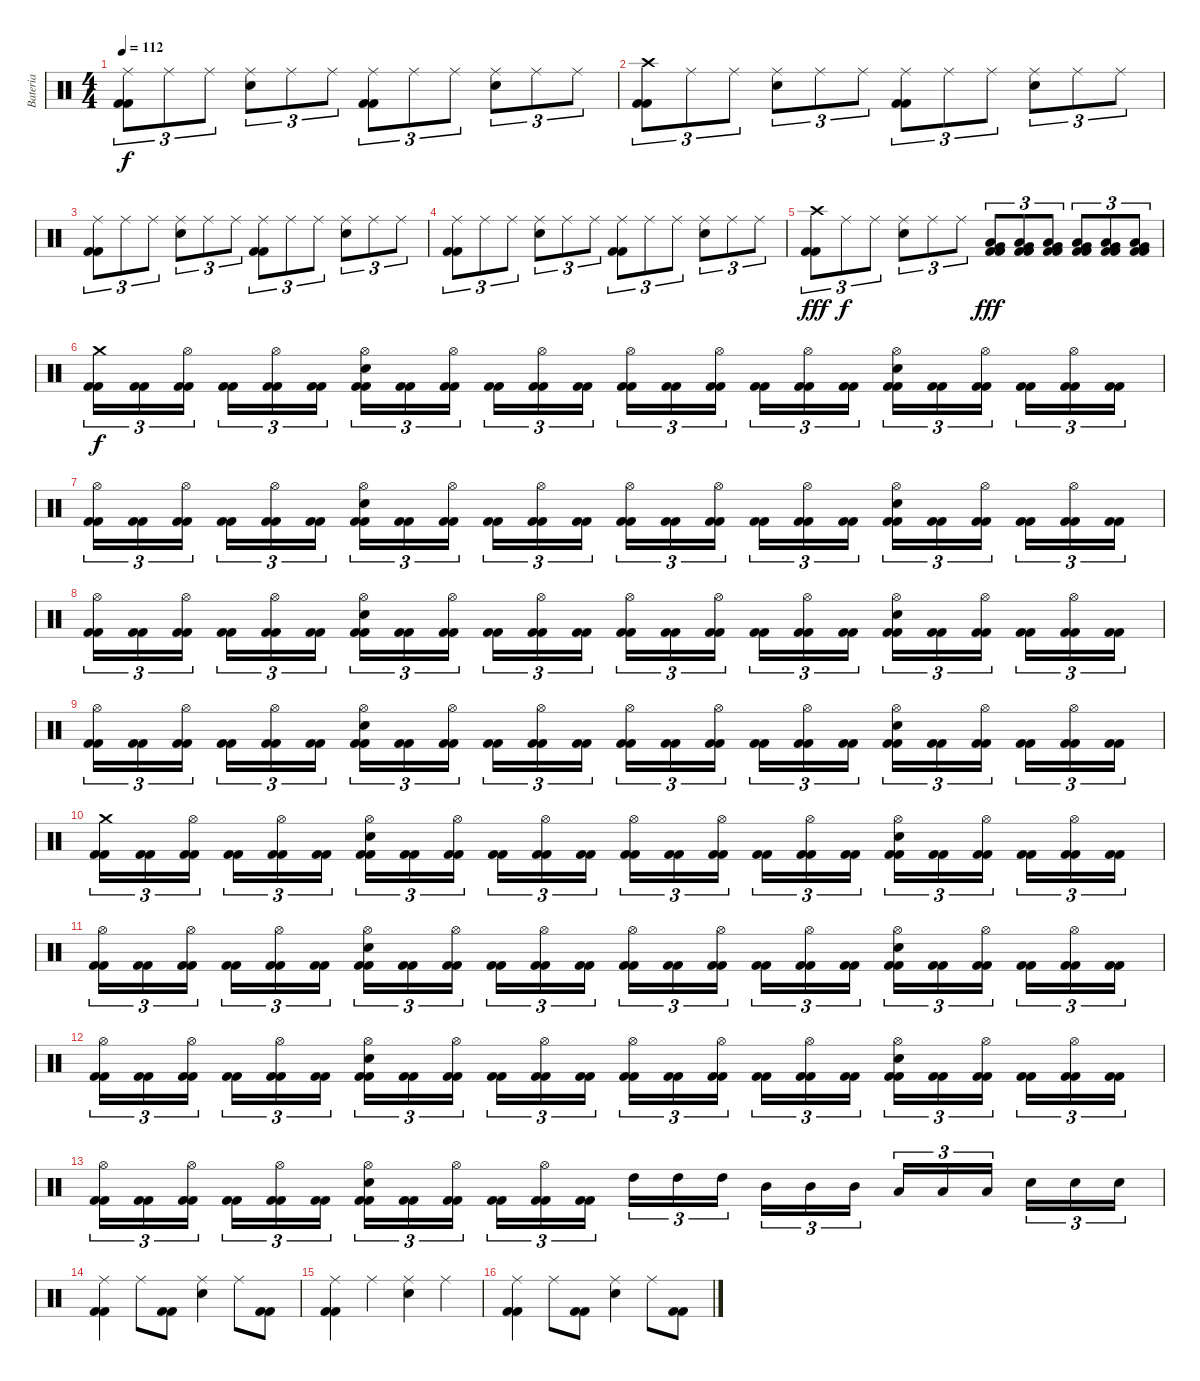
\track ("Bateria" "Bateria") {instrument percussion}
\staff {score}
\articulation defaults
\ts (4 4)
\tempo 112
\clef neutral
\ks c
("Kick (hit) 2" "Kick (hit) 2" "Ride (middle)").8{tu (3 2) dy f} "Ride (middle)".8{tu (3 2)} "Ride (middle)".8{tu (3 2)} ("Snare (hit) 2" "Ride (middle)").8{tu (3 2)} "Ride (middle)".8{tu (3 2)} "Ride (middle)".8{tu (3 2)} ("Kick (hit) 2" "Kick (hit) 2" "Ride (middle)").8{tu (3 2)} "Ride (middle)".8{tu (3 2)} "Ride (middle)".8{tu (3 2)} ("Snare (hit) 2" "Ride (middle)").8{tu (3 2)} "Ride (middle)".8{tu (3 2)} "Ride (middle)".8{tu (3 2)} |
("Kick (hit) 2" "Kick (hit) 2" "Crash high (hit)").8{tu (3 2)} "Ride (middle)".8{tu (3 2)} "Ride (middle)".8{tu (3 2)} ("Snare (hit) 2" "Ride (middle)").8{tu (3 2)} "Ride (middle)".8{tu (3 2)} "Ride (middle)".8{tu (3 2)} ("Kick (hit) 2" "Kick (hit) 2" "Ride (middle)").8{tu (3 2)} "Ride (middle)".8{tu (3 2)} "Ride (middle)".8{tu (3 2)} ("Snare (hit) 2" "Ride (middle)").8{tu (3 2)} "Ride (middle)".8{tu (3 2)} "Ride (middle)".8{tu (3 2)} |
("Kick (hit) 2" "Kick (hit) 2" "Ride (middle)").8{tu (3 2)} "Ride (middle)".8{tu (3 2)} "Ride (middle)".8{tu (3 2)} ("Snare (hit) 2" "Ride (middle)").8{tu (3 2)} "Ride (middle)".8{tu (3 2)} "Ride (middle)".8{tu (3 2)} ("Kick (hit) 2" "Kick (hit) 2" "Ride (middle)").8{tu (3 2)} "Ride (middle)".8{tu (3 2)} "Ride (middle)".8{tu (3 2)} ("Snare (hit) 2" "Ride (middle)").8{tu (3 2)} "Ride (middle)".8{tu (3 2)} "Ride (middle)".8{tu (3 2)} |
("Kick (hit) 2" "Kick (hit) 2" "Ride (middle)").8{tu (3 2)} "Ride (middle)".8{tu (3 2)} "Ride (middle)".8{tu (3 2)} ("Snare (hit) 2" "Ride (middle)").8{tu (3 2)} "Ride (middle)".8{tu (3 2)} "Ride (middle)".8{tu (3 2)} ("Kick (hit) 2" "Kick (hit) 2" "Ride (middle)").8{tu (3 2)} "Ride (middle)".8{tu (3 2)} "Ride (middle)".8{tu (3 2)} ("Snare (hit) 2" "Ride (middle)").8{tu (3 2)} "Ride (middle)".8{tu (3 2)} "Ride (middle)".8{tu (3 2)} |
("Kick (hit) 2" "Kick (hit) 2" "Crash high (hit)").8{tu (3 2) dy fff} "Ride (middle)".8{tu (3 2) dy f} "Ride (middle)".8{tu (3 2)} ("Snare (hit) 2" "Ride (middle)").8{tu (3 2)} "Ride (middle)".8{tu (3 2)} "Ride (middle)".8{tu (3 2)} ("Kick (hit) 2" "Kick (hit) 2" "Very Low Tom (hit)" "Low Tom (hit)").8{tu (3 2) dy fff} ("Kick (hit) 2" "Kick (hit) 2" "Very Low Tom (hit)" "Low Tom (hit)").8{tu (3 2)} ("Kick (hit) 2" "Kick (hit) 2" "Very Low Tom (hit)" "Low Tom (hit)").8{tu (3 2)} ("Kick (hit) 2" "Kick (hit) 2" "Very Low Tom (hit)" "Low Tom (hit)").8{tu (3 2)} ("Kick (hit) 2" "Kick (hit) 2" "Very Low Tom (hit)" "Low Tom (hit)").8{tu (3 2)} ("Kick (hit) 2" "Kick (hit) 2" "Very Low Tom (hit)" "Low Tom (hit)").8{tu (3 2)} |
("Kick (hit) 2" "Kick (hit) 2" "Crash medium (hit)").16{tu (3 2) dy f} ("Kick (hit) 2" "Kick (hit) 2").16{tu (3 2)} ("Kick (hit) 2" "Kick (hit) 2" "Hi-Hat (open)").16{tu (3 2)} ("Kick (hit) 2" "Kick (hit) 2").16{tu (3 2)} ("Kick (hit) 2" "Kick (hit) 2" "Hi-Hat (open)").16{tu (3 2)} ("Kick (hit) 2" "Kick (hit) 2").16{tu (3 2)} ("Kick (hit) 2" "Kick (hit) 2" "Snare (hit) 2" "Hi-Hat (open)").16{tu (3 2)} ("Kick (hit) 2" "Kick (hit) 2").16{tu (3 2)} ("Kick (hit) 2" "Kick (hit) 2" "Hi-Hat (open)").16{tu (3 2)} ("Kick (hit) 2" "Kick (hit) 2").16{tu (3 2)} ("Kick (hit) 2" "Kick (hit) 2" "Hi-Hat (open)").16{tu (3 2)} ("Kick (hit) 2" "Kick (hit) 2").16{tu (3 2)} ("Kick (hit) 2" "Kick (hit) 2" "Hi-Hat (open)").16{tu (3 2)} ("Kick (hit) 2" "Kick (hit) 2").16{tu (3 2)} ("Kick (hit) 2" "Kick (hit) 2" "Hi-Hat (open)").16{tu (3 2)} ("Kick (hit) 2" "Kick (hit) 2").16{tu (3 2)} ("Kick (hit) 2" "Kick (hit) 2" "Hi-Hat (open)").16{tu (3 2)} ("Kick (hit) 2" "Kick (hit) 2").16{tu (3 2)} ("Kick (hit) 2" "Kick (hit) 2" "Snare (hit) 2" "Hi-Hat (open)").16{tu (3 2)} ("Kick (hit) 2" "Kick (hit) 2").16{tu (3 2)} ("Kick (hit) 2" "Kick (hit) 2" "Hi-Hat (open)").16{tu (3 2)} ("Kick (hit) 2" "Kick (hit) 2").16{tu (3 2)} ("Kick (hit) 2" "Kick (hit) 2" "Hi-Hat (open)").16{tu (3 2)} ("Kick (hit) 2" "Kick (hit) 2").16{tu (3 2)} |
("Kick (hit) 2" "Kick (hit) 2" "Hi-Hat (open)").16{tu (3 2)} ("Kick (hit) 2" "Kick (hit) 2").16{tu (3 2)} ("Kick (hit) 2" "Kick (hit) 2" "Hi-Hat (open)").16{tu (3 2)} ("Kick (hit) 2" "Kick (hit) 2").16{tu (3 2)} ("Kick (hit) 2" "Kick (hit) 2" "Hi-Hat (open)").16{tu (3 2)} ("Kick (hit) 2" "Kick (hit) 2").16{tu (3 2)} ("Kick (hit) 2" "Kick (hit) 2" "Snare (hit) 2" "Hi-Hat (open)").16{tu (3 2)} ("Kick (hit) 2" "Kick (hit) 2").16{tu (3 2)} ("Kick (hit) 2" "Kick (hit) 2" "Hi-Hat (open)").16{tu (3 2)} ("Kick (hit) 2" "Kick (hit) 2").16{tu (3 2)} ("Kick (hit) 2" "Kick (hit) 2" "Hi-Hat (open)").16{tu (3 2)} ("Kick (hit) 2" "Kick (hit) 2").16{tu (3 2)} ("Kick (hit) 2" "Kick (hit) 2" "Hi-Hat (open)").16{tu (3 2)} ("Kick (hit) 2" "Kick (hit) 2").16{tu (3 2)} ("Kick (hit) 2" "Kick (hit) 2" "Hi-Hat (open)").16{tu (3 2)} ("Kick (hit) 2" "Kick (hit) 2").16{tu (3 2)} ("Kick (hit) 2" "Kick (hit) 2" "Hi-Hat (open)").16{tu (3 2)} ("Kick (hit) 2" "Kick (hit) 2").16{tu (3 2)} ("Kick (hit) 2" "Kick (hit) 2" "Snare (hit) 2" "Hi-Hat (open)").16{tu (3 2)} ("Kick (hit) 2" "Kick (hit) 2").16{tu (3 2)} ("Kick (hit) 2" "Kick (hit) 2" "Hi-Hat (open)").16{tu (3 2)} ("Kick (hit) 2" "Kick (hit) 2").16{tu (3 2)} ("Kick (hit) 2" "Kick (hit) 2" "Hi-Hat (open)").16{tu (3 2)} ("Kick (hit) 2" "Kick (hit) 2").16{tu (3 2)} |
("Kick (hit) 2" "Kick (hit) 2" "Hi-Hat (open)").16{tu (3 2)} ("Kick (hit) 2" "Kick (hit) 2").16{tu (3 2)} ("Kick (hit) 2" "Kick (hit) 2" "Hi-Hat (open)").16{tu (3 2)} ("Kick (hit) 2" "Kick (hit) 2").16{tu (3 2)} ("Kick (hit) 2" "Kick (hit) 2" "Hi-Hat (open)").16{tu (3 2)} ("Kick (hit) 2" "Kick (hit) 2").16{tu (3 2)} ("Kick (hit) 2" "Kick (hit) 2" "Snare (hit) 2" "Hi-Hat (open)").16{tu (3 2)} ("Kick (hit) 2" "Kick (hit) 2").16{tu (3 2)} ("Kick (hit) 2" "Kick (hit) 2" "Hi-Hat (open)").16{tu (3 2)} ("Kick (hit) 2" "Kick (hit) 2").16{tu (3 2)} ("Kick (hit) 2" "Kick (hit) 2" "Hi-Hat (open)").16{tu (3 2)} ("Kick (hit) 2" "Kick (hit) 2").16{tu (3 2)} ("Kick (hit) 2" "Kick (hit) 2" "Hi-Hat (open)").16{tu (3 2)} ("Kick (hit) 2" "Kick (hit) 2").16{tu (3 2)} ("Kick (hit) 2" "Kick (hit) 2" "Hi-Hat (open)").16{tu (3 2)} ("Kick (hit) 2" "Kick (hit) 2").16{tu (3 2)} ("Kick (hit) 2" "Kick (hit) 2" "Hi-Hat (open)").16{tu (3 2)} ("Kick (hit) 2" "Kick (hit) 2").16{tu (3 2)} ("Kick (hit) 2" "Kick (hit) 2" "Snare (hit) 2" "Hi-Hat (open)").16{tu (3 2)} ("Kick (hit) 2" "Kick (hit) 2").16{tu (3 2)} ("Kick (hit) 2" "Kick (hit) 2" "Hi-Hat (open)").16{tu (3 2)} ("Kick (hit) 2" "Kick (hit) 2").16{tu (3 2)} ("Kick (hit) 2" "Kick (hit) 2" "Hi-Hat (open)").16{tu (3 2)} ("Kick (hit) 2" "Kick (hit) 2").16{tu (3 2)} |
("Kick (hit) 2" "Kick (hit) 2" "Hi-Hat (open)").16{tu (3 2)} ("Kick (hit) 2" "Kick (hit) 2").16{tu (3 2)} ("Kick (hit) 2" "Kick (hit) 2" "Hi-Hat (open)").16{tu (3 2)} ("Kick (hit) 2" "Kick (hit) 2").16{tu (3 2)} ("Kick (hit) 2" "Kick (hit) 2" "Hi-Hat (open)").16{tu (3 2)} ("Kick (hit) 2" "Kick (hit) 2").16{tu (3 2)} ("Kick (hit) 2" "Kick (hit) 2" "Snare (hit) 2" "Hi-Hat (open)").16{tu (3 2)} ("Kick (hit) 2" "Kick (hit) 2").16{tu (3 2)} ("Kick (hit) 2" "Kick (hit) 2" "Hi-Hat (open)").16{tu (3 2)} ("Kick (hit) 2" "Kick (hit) 2").16{tu (3 2)} ("Kick (hit) 2" "Kick (hit) 2" "Hi-Hat (open)").16{tu (3 2)} ("Kick (hit) 2" "Kick (hit) 2").16{tu (3 2)} ("Kick (hit) 2" "Kick (hit) 2" "Hi-Hat (open)").16{tu (3 2)} ("Kick (hit) 2" "Kick (hit) 2").16{tu (3 2)} ("Kick (hit) 2" "Kick (hit) 2" "Hi-Hat (open)").16{tu (3 2)} ("Kick (hit) 2" "Kick (hit) 2").16{tu (3 2)} ("Kick (hit) 2" "Kick (hit) 2" "Hi-Hat (open)").16{tu (3 2)} ("Kick (hit) 2" "Kick (hit) 2").16{tu (3 2)} ("Kick (hit) 2" "Kick (hit) 2" "Snare (hit) 2" "Hi-Hat (open)").16{tu (3 2)} ("Kick (hit) 2" "Kick (hit) 2").16{tu (3 2)} ("Kick (hit) 2" "Kick (hit) 2" "Hi-Hat (open)").16{tu (3 2)} ("Kick (hit) 2" "Kick (hit) 2").16{tu (3 2)} ("Kick (hit) 2" "Kick (hit) 2" "Hi-Hat (open)").16{tu (3 2)} ("Kick (hit) 2" "Kick (hit) 2").16{tu (3 2)} |
("Kick (hit) 2" "Kick (hit) 2" "Crash medium (hit)").16{tu (3 2)} ("Kick (hit) 2" "Kick (hit) 2").16{tu (3 2)} ("Kick (hit) 2" "Kick (hit) 2" "Hi-Hat (open)").16{tu (3 2)} ("Kick (hit) 2" "Kick (hit) 2").16{tu (3 2)} ("Kick (hit) 2" "Kick (hit) 2" "Hi-Hat (open)").16{tu (3 2)} ("Kick (hit) 2" "Kick (hit) 2").16{tu (3 2)} ("Kick (hit) 2" "Kick (hit) 2" "Snare (hit) 2" "Hi-Hat (open)").16{tu (3 2)} ("Kick (hit) 2" "Kick (hit) 2").16{tu (3 2)} ("Kick (hit) 2" "Kick (hit) 2" "Hi-Hat (open)").16{tu (3 2)} ("Kick (hit) 2" "Kick (hit) 2").16{tu (3 2)} ("Kick (hit) 2" "Kick (hit) 2" "Hi-Hat (open)").16{tu (3 2)} ("Kick (hit) 2" "Kick (hit) 2").16{tu (3 2)} ("Kick (hit) 2" "Kick (hit) 2" "Hi-Hat (open)").16{tu (3 2)} ("Kick (hit) 2" "Kick (hit) 2").16{tu (3 2)} ("Kick (hit) 2" "Kick (hit) 2" "Hi-Hat (open)").16{tu (3 2)} ("Kick (hit) 2" "Kick (hit) 2").16{tu (3 2)} ("Kick (hit) 2" "Kick (hit) 2" "Hi-Hat (open)").16{tu (3 2)} ("Kick (hit) 2" "Kick (hit) 2").16{tu (3 2)} ("Kick (hit) 2" "Kick (hit) 2" "Snare (hit) 2" "Hi-Hat (open)").16{tu (3 2)} ("Kick (hit) 2" "Kick (hit) 2").16{tu (3 2)} ("Kick (hit) 2" "Kick (hit) 2" "Hi-Hat (open)").16{tu (3 2)} ("Kick (hit) 2" "Kick (hit) 2").16{tu (3 2)} ("Kick (hit) 2" "Kick (hit) 2" "Hi-Hat (open)").16{tu (3 2)} ("Kick (hit) 2" "Kick (hit) 2").16{tu (3 2)} |
("Kick (hit) 2" "Kick (hit) 2" "Hi-Hat (open)").16{tu (3 2)} ("Kick (hit) 2" "Kick (hit) 2").16{tu (3 2)} ("Kick (hit) 2" "Kick (hit) 2" "Hi-Hat (open)").16{tu (3 2)} ("Kick (hit) 2" "Kick (hit) 2").16{tu (3 2)} ("Kick (hit) 2" "Kick (hit) 2" "Hi-Hat (open)").16{tu (3 2)} ("Kick (hit) 2" "Kick (hit) 2").16{tu (3 2)} ("Kick (hit) 2" "Kick (hit) 2" "Snare (hit) 2" "Hi-Hat (open)").16{tu (3 2)} ("Kick (hit) 2" "Kick (hit) 2").16{tu (3 2)} ("Kick (hit) 2" "Kick (hit) 2" "Hi-Hat (open)").16{tu (3 2)} ("Kick (hit) 2" "Kick (hit) 2").16{tu (3 2)} ("Kick (hit) 2" "Kick (hit) 2" "Hi-Hat (open)").16{tu (3 2)} ("Kick (hit) 2" "Kick (hit) 2").16{tu (3 2)} ("Kick (hit) 2" "Kick (hit) 2" "Hi-Hat (open)").16{tu (3 2)} ("Kick (hit) 2" "Kick (hit) 2").16{tu (3 2)} ("Kick (hit) 2" "Kick (hit) 2" "Hi-Hat (open)").16{tu (3 2)} ("Kick (hit) 2" "Kick (hit) 2").16{tu (3 2)} ("Kick (hit) 2" "Kick (hit) 2" "Hi-Hat (open)").16{tu (3 2)} ("Kick (hit) 2" "Kick (hit) 2").16{tu (3 2)} ("Kick (hit) 2" "Kick (hit) 2" "Snare (hit) 2" "Hi-Hat (open)").16{tu (3 2)} ("Kick (hit) 2" "Kick (hit) 2").16{tu (3 2)} ("Kick (hit) 2" "Kick (hit) 2" "Hi-Hat (open)").16{tu (3 2)} ("Kick (hit) 2" "Kick (hit) 2").16{tu (3 2)} ("Kick (hit) 2" "Kick (hit) 2" "Hi-Hat (open)").16{tu (3 2)} ("Kick (hit) 2" "Kick (hit) 2").16{tu (3 2)} |
("Kick (hit) 2" "Kick (hit) 2" "Hi-Hat (open)").16{tu (3 2)} ("Kick (hit) 2" "Kick (hit) 2").16{tu (3 2)} ("Kick (hit) 2" "Kick (hit) 2" "Hi-Hat (open)").16{tu (3 2)} ("Kick (hit) 2" "Kick (hit) 2").16{tu (3 2)} ("Kick (hit) 2" "Kick (hit) 2" "Hi-Hat (open)").16{tu (3 2)} ("Kick (hit) 2" "Kick (hit) 2").16{tu (3 2)} ("Kick (hit) 2" "Kick (hit) 2" "Snare (hit) 2" "Hi-Hat (open)").16{tu (3 2)} ("Kick (hit) 2" "Kick (hit) 2").16{tu (3 2)} ("Kick (hit) 2" "Kick (hit) 2" "Hi-Hat (open)").16{tu (3 2)} ("Kick (hit) 2" "Kick (hit) 2").16{tu (3 2)} ("Kick (hit) 2" "Kick (hit) 2" "Hi-Hat (open)").16{tu (3 2)} ("Kick (hit) 2" "Kick (hit) 2").16{tu (3 2)} ("Kick (hit) 2" "Kick (hit) 2" "Hi-Hat (open)").16{tu (3 2)} ("Kick (hit) 2" "Kick (hit) 2").16{tu (3 2)} ("Kick (hit) 2" "Kick (hit) 2" "Hi-Hat (open)").16{tu (3 2)} ("Kick (hit) 2" "Kick (hit) 2").16{tu (3 2)} ("Kick (hit) 2" "Kick (hit) 2" "Hi-Hat (open)").16{tu (3 2)} ("Kick (hit) 2" "Kick (hit) 2").16{tu (3 2)} ("Kick (hit) 2" "Kick (hit) 2" "Snare (hit) 2" "Hi-Hat (open)").16{tu (3 2)} ("Kick (hit) 2" "Kick (hit) 2").16{tu (3 2)} ("Kick (hit) 2" "Kick (hit) 2" "Hi-Hat (open)").16{tu (3 2)} ("Kick (hit) 2" "Kick (hit) 2").16{tu (3 2)} ("Kick (hit) 2" "Kick (hit) 2" "Hi-Hat (open)").16{tu (3 2)} ("Kick (hit) 2" "Kick (hit) 2").16{tu (3 2)} |
("Kick (hit) 2" "Kick (hit) 2" "Hi-Hat (open)").16{tu (3 2)} ("Kick (hit) 2" "Kick (hit) 2").16{tu (3 2)} ("Kick (hit) 2" "Kick (hit) 2" "Hi-Hat (open)").16{tu (3 2)} ("Kick (hit) 2" "Kick (hit) 2").16{tu (3 2)} ("Kick (hit) 2" "Kick (hit) 2" "Hi-Hat (open)").16{tu (3 2)} ("Kick (hit) 2" "Kick (hit) 2").16{tu (3 2)} ("Kick (hit) 2" "Kick (hit) 2" "Snare (hit) 2" "Hi-Hat (open)").16{tu (3 2)} ("Kick (hit) 2" "Kick (hit) 2").16{tu (3 2)} ("Kick (hit) 2" "Kick (hit) 2" "Hi-Hat (open)").16{tu (3 2)} ("Kick (hit) 2" "Kick (hit) 2").16{tu (3 2)} ("Kick (hit) 2" "Kick (hit) 2" "Hi-Hat (open)").16{tu (3 2)} ("Kick (hit) 2" "Kick (hit) 2").16{tu (3 2)} "High Tom (hit)".16{tu (3 2)} "High Tom (hit)".16{tu (3 2)} "High Tom (hit)".16{tu (3 2)} "Mid Tom (hit)".16{tu (3 2)} "Mid Tom (hit)".16{tu (3 2)} "Mid Tom (hit)".16{tu (3 2)} "Low Tom (hit)".16{tu (3 2)} "Low Tom (hit)".16{tu (3 2)} "Low Tom (hit)".16{tu (3 2)} "Snare (hit) 2".16{tu (3 2)} "Snare (hit) 2".16{tu (3 2)} "Snare (hit) 2".16{tu (3 2)} |
("Kick (hit) 2" "Kick (hit) 2" "Ride (middle)").4 "Ride (middle)".8 ("Kick (hit) 2" "Kick (hit) 2").8 ("Snare (hit) 2" "Ride (middle)").4 "Ride (middle)".8 ("Kick (hit) 2" "Kick (hit) 2").8 |
("Kick (hit) 2" "Kick (hit) 2" "Ride (middle)").4 "Ride (middle)".4 ("Snare (hit) 2" "Ride (middle)").4 "Ride (middle)".4 |
("Kick (hit) 2" "Kick (hit) 2" "Ride (middle)").4 "Ride (middle)".8 ("Kick (hit) 2" "Kick (hit) 2").8 ("Snare (hit) 2" "Ride (middle)").4 "Ride (middle)".8 ("Kick (hit) 2" "Kick (hit) 2").8
